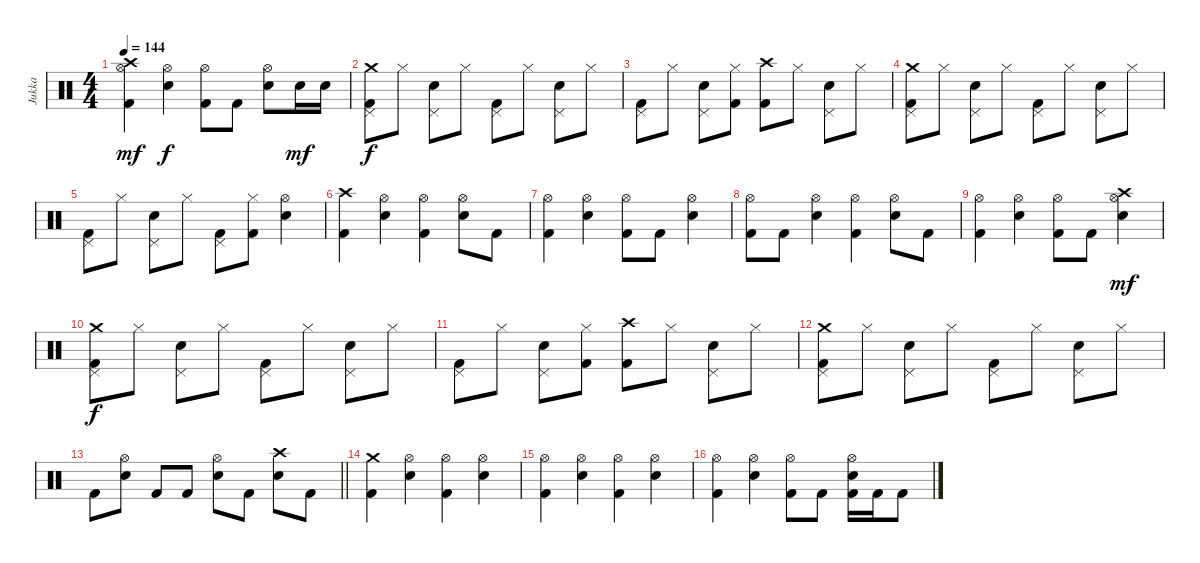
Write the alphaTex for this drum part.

\track ("Jukka" "Jukka") {instrument percussion}
\staff {score}
\articulation defaults
\ts (4 4)
\tempo 144
\clef neutral
\ks c
("Crash high (hit)" "Hi-Hat (open)" "Kick (hit) 2").4{dy mf} ("Hi-Hat (open)" "Electric Snare (hit)").4{dy f} ("Hi-Hat (open)" "Kick (hit) 2").8 "Kick (hit) 2".8 ("Hi-Hat (open)" "Electric Snare (hit)").8 "Electric Snare (hit)".16{dy mf} "Electric Snare (hit)".16 |
("Crash medium (hit)" "Pedal Hi-Hat (hit)" "Kick (hit) 2").8{dy f} "Hi-Hat (closed)".8 ("Pedal Hi-Hat (hit)" "Electric Snare (hit)").8 "Hi-Hat (closed)".8 ("Pedal Hi-Hat (hit)" "Kick (hit) 2").8 "Hi-Hat (closed)".8 ("Pedal Hi-Hat (hit)" "Electric Snare (hit)").8 "Hi-Hat (closed)".8 |
("Pedal Hi-Hat (hit)" "Kick (hit) 2").8 "Hi-Hat (closed)".8 ("Pedal Hi-Hat (hit)" "Electric Snare (hit)").8 ("Hi-Hat (closed)" "Kick (hit) 2").8 ("Crash high (hit)" "Kick (hit) 2").8 "Hi-Hat (closed)".8 ("Pedal Hi-Hat (hit)" "Electric Snare (hit)").8 "Hi-Hat (closed)".8 |
("Crash medium (hit)" "Pedal Hi-Hat (hit)" "Kick (hit) 2").8 "Hi-Hat (closed)".8 ("Pedal Hi-Hat (hit)" "Electric Snare (hit)").8 "Hi-Hat (closed)".8 ("Pedal Hi-Hat (hit)" "Kick (hit) 2").8 "Hi-Hat (closed)".8 ("Pedal Hi-Hat (hit)" "Electric Snare (hit)").8 "Hi-Hat (closed)".8 |
("Pedal Hi-Hat (hit)" "Kick (hit) 2").8 "Hi-Hat (closed)".8 ("Pedal Hi-Hat (hit)" "Electric Snare (hit)").8 "Hi-Hat (closed)".8 ("Pedal Hi-Hat (hit)" "Kick (hit) 2").8 ("Hi-Hat (closed)" "Kick (hit) 2").8 ("Hi-Hat (open)" "Electric Snare (hit)").4 |
("Crash high (hit)" "Kick (hit) 2").4 ("Hi-Hat (open)" "Electric Snare (hit)").4 ("Hi-Hat (open)" "Kick (hit) 2").4 ("Hi-Hat (open)" "Electric Snare (hit)").8 "Kick (hit) 2".8 |
("Hi-Hat (open)" "Kick (hit) 2").4 ("Hi-Hat (open)" "Electric Snare (hit)").4 ("Hi-Hat (open)" "Kick (hit) 2").8 "Kick (hit) 2".8 ("Hi-Hat (open)" "Electric Snare (hit)").4 |
("Hi-Hat (open)" "Kick (hit) 2").8 "Kick (hit) 2".8 ("Hi-Hat (open)" "Electric Snare (hit)").4 ("Hi-Hat (open)" "Kick (hit) 2").4 ("Hi-Hat (open)" "Electric Snare (hit)").8 "Kick (hit) 2".8 |
("Hi-Hat (open)" "Kick (hit) 2").4 ("Hi-Hat (open)" "Electric Snare (hit)").4 ("Hi-Hat (open)" "Kick (hit) 2").8 "Kick (hit) 2".8 ("Crash high (hit)" "Hi-Hat (open)" "Electric Snare (hit)").4{dy mf} |
("Crash medium (hit)" "Pedal Hi-Hat (hit)" "Kick (hit) 2").8{dy f} "Hi-Hat (closed)".8 ("Pedal Hi-Hat (hit)" "Electric Snare (hit)").8 "Hi-Hat (closed)".8 ("Pedal Hi-Hat (hit)" "Kick (hit) 2").8 "Hi-Hat (closed)".8 ("Pedal Hi-Hat (hit)" "Electric Snare (hit)").8 "Hi-Hat (closed)".8 |
("Pedal Hi-Hat (hit)" "Kick (hit) 2").8 "Hi-Hat (closed)".8 ("Pedal Hi-Hat (hit)" "Electric Snare (hit)").8 ("Hi-Hat (closed)" "Kick (hit) 2").8 ("Crash high (hit)" "Kick (hit) 2").8 "Hi-Hat (closed)".8 ("Pedal Hi-Hat (hit)" "Electric Snare (hit)").8 "Hi-Hat (closed)".8 |
("Crash medium (hit)" "Pedal Hi-Hat (hit)" "Kick (hit) 2").8 "Hi-Hat (closed)".8 ("Pedal Hi-Hat (hit)" "Electric Snare (hit)").8 "Hi-Hat (closed)".8 ("Pedal Hi-Hat (hit)" "Kick (hit) 2").8 "Hi-Hat (closed)".8 ("Pedal Hi-Hat (hit)" "Electric Snare (hit)").8 "Hi-Hat (closed)".8 |
\barLineRight lightlight "Kick (hit) 2".8
("Hi-Hat (open)" "Electric Snare (hit)").8 "Kick (hit) 2".8 "Kick (hit) 2".8 ("Hi-Hat (open)" "Electric Snare (hit)").8 "Kick (hit) 2".8 ("Crash high (hit)" "Electric Snare (hit)").8 "Kick (hit) 2".8 |
("Crash medium (hit)" "Kick (hit) 2").4 ("Hi-Hat (open)" "Electric Snare (hit)").4 ("Hi-Hat (open)" "Kick (hit) 2").4 ("Hi-Hat (open)" "Electric Snare (hit)").4 |
("Hi-Hat (open)" "Kick (hit) 2").4 ("Hi-Hat (open)" "Electric Snare (hit)").4 ("Hi-Hat (open)" "Kick (hit) 2").4 ("Hi-Hat (open)" "Electric Snare (hit)").4 |
("Hi-Hat (open)" "Kick (hit) 2").4 ("Hi-Hat (open)" "Electric Snare (hit)").4 ("Hi-Hat (open)" "Kick (hit) 2").8 "Kick (hit) 2".8 ("Hi-Hat (open)" "Electric Snare (hit)" "Kick (hit) 2").16 "Kick (hit) 2".16 "Kick (hit) 2".8
